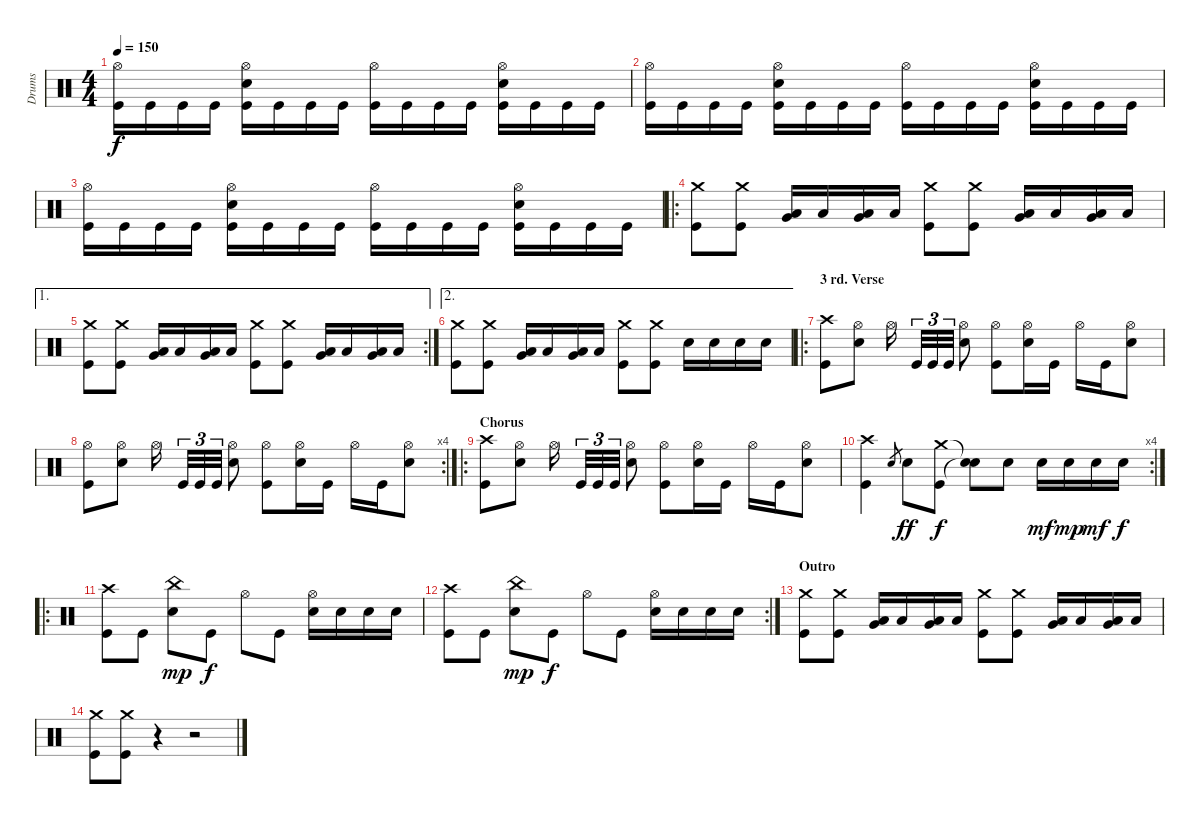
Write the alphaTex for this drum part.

\track ("Drums" "Drums") {instrument percussion}
\staff {score}
\articulation defaults
\ts (4 4)
\tempo 150
\clef neutral
\ks c
("Hi-Hat (open)" "Kick (hit)").16{dy f} "Kick (hit)".16 "Kick (hit)".16 "Kick (hit)".16 ("Hi-Hat (open)" "Electric Snare (hit)" "Kick (hit)").16 "Kick (hit)".16 "Kick (hit)".16 "Kick (hit)".16 ("Hi-Hat (open)" "Kick (hit)").16 "Kick (hit)".16 "Kick (hit)".16 "Kick (hit)".16 ("Hi-Hat (open)" "Electric Snare (hit)" "Kick (hit)").16 "Kick (hit)".16 "Kick (hit)".16 "Kick (hit)".16 |
("Hi-Hat (open)" "Kick (hit)").16 "Kick (hit)".16 "Kick (hit)".16 "Kick (hit)".16 ("Hi-Hat (open)" "Electric Snare (hit)" "Kick (hit)").16 "Kick (hit)".16 "Kick (hit)".16 "Kick (hit)".16 ("Hi-Hat (open)" "Kick (hit)").16 "Kick (hit)".16 "Kick (hit)".16 "Kick (hit)".16 ("Hi-Hat (open)" "Electric Snare (hit)" "Kick (hit)").16 "Kick (hit)".16 "Kick (hit)".16 "Kick (hit)".16 |
("Hi-Hat (open)" "Kick (hit)").16 "Kick (hit)".16 "Kick (hit)".16 "Kick (hit)".16 ("Hi-Hat (open)" "Electric Snare (hit)" "Kick (hit)").16 "Kick (hit)".16 "Kick (hit)".16 "Kick (hit)".16 ("Hi-Hat (open)" "Kick (hit)").16 "Kick (hit)".16 "Kick (hit)".16 "Kick (hit)".16 ("Hi-Hat (open)" "Electric Snare (hit)" "Kick (hit)").16 "Kick (hit)".16 "Kick (hit)".16 "Kick (hit)".16 |
\ro
("Crash medium (hit)" "Kick (hit)").8 ("Crash medium (hit)" "Kick (hit)").8 ("Very Low Tom (hit)" "Low Tom (hit)").16 "Low Tom (hit)".16 ("Very Low Tom (hit)" "Low Tom (hit)").16 "Low Tom (hit)".16 ("Crash medium (hit)" "Kick (hit)").8 ("Crash medium (hit)" "Kick (hit)").8 ("Very Low Tom (hit)" "Low Tom (hit)").16 "Low Tom (hit)".16 ("Very Low Tom (hit)" "Low Tom (hit)").16 "Low Tom (hit)".16 |
\ae 1
\rc 2
("Crash medium (hit)" "Kick (hit)").8 ("Crash medium (hit)" "Kick (hit)").8 ("Very Low Tom (hit)" "Low Tom (hit)").16 "Low Tom (hit)".16 ("Very Low Tom (hit)" "Low Tom (hit)").16 "Low Tom (hit)".16 ("Crash medium (hit)" "Kick (hit)").8 ("Crash medium (hit)" "Kick (hit)").8 ("Very Low Tom (hit)" "Low Tom (hit)").16 "Low Tom (hit)".16 ("Very Low Tom (hit)" "Low Tom (hit)").16 "Low Tom (hit)".16 |
\ae 2
("Crash medium (hit)" "Kick (hit)").8 ("Crash medium (hit)" "Kick (hit)").8 ("Very Low Tom (hit)" "Low Tom (hit)").16 "Low Tom (hit)".16 ("Very Low Tom (hit)" "Low Tom (hit)").16 "Low Tom (hit)".16 ("Crash medium (hit)" "Kick (hit)").8 ("Crash medium (hit)" "Kick (hit)").8 "Electric Snare (hit)".16 "Electric Snare (hit)".16 "Electric Snare (hit)".16 "Electric Snare (hit)".16 |
\ro
\section ("" "3 rd. Verse")
("Crash high (hit)" "Kick (hit)").8 ("Hi-Hat (open)" "Electric Snare (hit)").8 "Hi-Hat (open)".16 "Kick (hit)".32{tu (3 2)} "Kick (hit)".32{tu (3 2)} "Kick (hit)".32{tu (3 2)} ("Hi-Hat (open)" "Electric Snare (hit)").8 ("Hi-Hat (open)" "Kick (hit)").8 ("Hi-Hat (open)" "Electric Snare (hit)").16 "Kick (hit)".16 "Hi-Hat (open)".16 "Kick (hit)".16 ("Hi-Hat (open)" "Electric Snare (hit)").8 |
\rc 4
("Hi-Hat (open)" "Kick (hit)").8 ("Hi-Hat (open)" "Electric Snare (hit)").8 "Hi-Hat (open)".16 "Kick (hit)".32{tu (3 2)} "Kick (hit)".32{tu (3 2)} "Kick (hit)".32{tu (3 2)} ("Hi-Hat (open)" "Electric Snare (hit)").8 ("Hi-Hat (open)" "Kick (hit)").8 ("Hi-Hat (open)" "Electric Snare (hit)").16 "Kick (hit)".16 "Hi-Hat (open)".16 "Kick (hit)".16 ("Hi-Hat (open)" "Electric Snare (hit)").8 |
\ro
\section ("" "Chorus")
("Crash high (hit)" "Kick (hit)").8 ("Hi-Hat (open)" "Electric Snare (hit)").8 "Hi-Hat (open)".16 "Kick (hit)".32{tu (3 2)} "Kick (hit)".32{tu (3 2)} "Kick (hit)".32{tu (3 2)} ("Hi-Hat (open)" "Electric Snare (hit)").8 ("Hi-Hat (open)" "Kick (hit)").8 ("Hi-Hat (open)" "Electric Snare (hit)").16 "Kick (hit)".16 "Hi-Hat (open)".16 "Kick (hit)".16 ("Hi-Hat (open)" "Electric Snare (hit)").8 |
\rc 4
("Crash high (hit)" "Kick (hit)").4 "Electric Snare (hit)".8{gr} "Electric Snare (hit)".8{dy ff} ("Crash medium (hit)" "Kick (hit)").8{dy f} ("Snare (hit)"{t} "Snare (hit)"{t}).8 "Electric Snare (hit)".8 "Electric Snare (hit)".16{dy mf} "Electric Snare (hit)".16{dy mp} "Electric Snare (hit)".16{dy mf} "Electric Snare (hit)".16{dy f} |
\ro
("Crash high (hit)" "Kick (hit)").8 "Kick (hit)".8 ("China (hit)" "Electric Snare (hit)").8{dy mp} "Kick (hit)".8{dy f} "Hi-Hat (open)".8 "Kick (hit)".8 ("Hi-Hat (open)" "Electric Snare (hit)").16 "Electric Snare (hit)".16 "Electric Snare (hit)".16 "Electric Snare (hit)".16 |
\rc 2
("Crash high (hit)" "Kick (hit)").8 "Kick (hit)".8 ("China (hit)" "Electric Snare (hit)").8{dy mp} "Kick (hit)".8{dy f} "Hi-Hat (open)".8 "Kick (hit)".8 ("Hi-Hat (open)" "Electric Snare (hit)").16 "Electric Snare (hit)".16 "Electric Snare (hit)".16 "Electric Snare (hit)".16 |
\section ("" "Outro")
("Crash medium (hit)" "Kick (hit)").8 ("Crash medium (hit)" "Kick (hit)").8 ("Very Low Tom (hit)" "Low Tom (hit)").16 "Low Tom (hit)".16 ("Very Low Tom (hit)" "Low Tom (hit)").16 "Low Tom (hit)".16 ("Crash medium (hit)" "Kick (hit)").8 ("Crash medium (hit)" "Kick (hit)").8 ("Very Low Tom (hit)" "Low Tom (hit)").16 "Low Tom (hit)".16 ("Very Low Tom (hit)" "Low Tom (hit)").16 "Low Tom (hit)".16 |
("Crash medium (hit)" "Kick (hit)").8 ("Crash medium (hit)" "Kick (hit)").8 r.4 r.2
